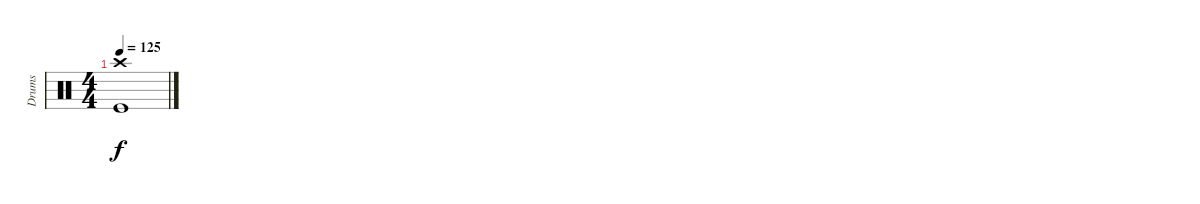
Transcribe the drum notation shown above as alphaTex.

\track ("Drums" "Drums") {instrument percussion}
\staff {score}
\articulation defaults
\ts (4 4)
\tempo 125
\clef neutral
\ks c
("Crash high (hit)" "Kick (hit)").1{dy f}
